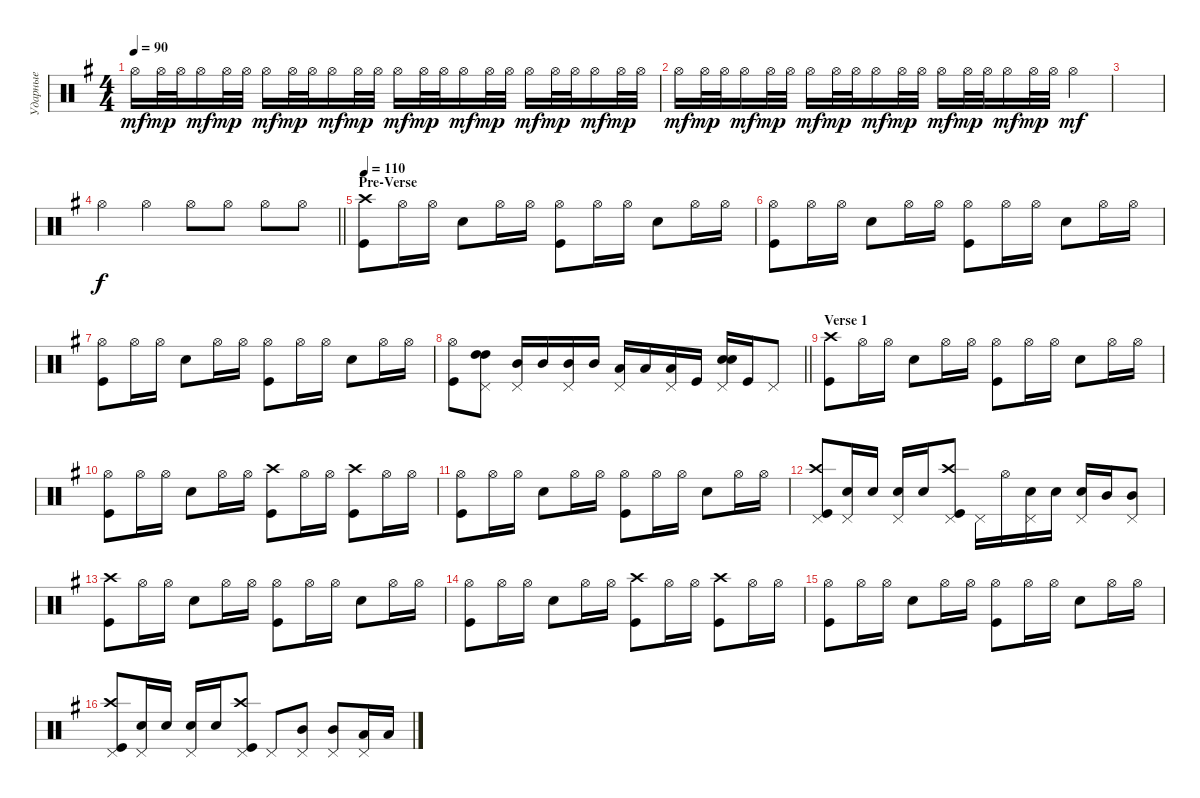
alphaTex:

\track ("Ударные" "Ударные") {instrument percussion}
\staff {score}
\articulation defaults
\ts (4 4)
\tempo 90
\clef neutral
\ks eminor "Hi-Hat (open)".16{dy mf} "Hi-Hat (open)".32{dy mp} "Hi-Hat (open)".32 "Hi-Hat (open)".16{dy mf} "Hi-Hat (open)".32{dy mp} "Hi-Hat (open)".32 "Hi-Hat (open)".16{dy mf} "Hi-Hat (open)".32{dy mp} "Hi-Hat (open)".32 "Hi-Hat (open)".16{dy mf} "Hi-Hat (open)".32{dy mp} "Hi-Hat (open)".32 "Hi-Hat (open)".16{dy mf} "Hi-Hat (open)".32{dy mp} "Hi-Hat (open)".32 "Hi-Hat (open)".16{dy mf} "Hi-Hat (open)".32{dy mp} "Hi-Hat (open)".32 "Hi-Hat (open)".16{dy mf} "Hi-Hat (open)".32{dy mp} "Hi-Hat (open)".32 "Hi-Hat (open)".16{dy mf} "Hi-Hat (open)".32{dy mp} "Hi-Hat (open)".32
|
"Hi-Hat (open)".16{dy mf} "Hi-Hat (open)".32{dy mp} "Hi-Hat (open)".32 "Hi-Hat (open)".16{dy mf} "Hi-Hat (open)".32{dy mp} "Hi-Hat (open)".32 "Hi-Hat (open)".16{dy mf} "Hi-Hat (open)".32{dy mp} "Hi-Hat (open)".32 "Hi-Hat (open)".16{dy mf} "Hi-Hat (open)".32{dy mp} "Hi-Hat (open)".32 "Hi-Hat (open)".16{dy mf} "Hi-Hat (open)".32{dy mp} "Hi-Hat (open)".32 "Hi-Hat (open)".16{dy mf} "Hi-Hat (open)".32{dy mp} "Hi-Hat (open)".32 "Hi-Hat (open)".4{dy mf} |
|
\barLineRight lightlight "Hi-Hat (open)".4{dy f} "Hi-Hat (open)".4 "Hi-Hat (open)".8 "Hi-Hat (open)".8 "Hi-Hat (open)".8 "Hi-Hat (open)".8
|
\section ("" "Pre-Verse")
\tempo 110
("Kick (hit)" "Crash high (hit)").8 "Hi-Hat (open)".16 "Hi-Hat (open)".16 "Snare (hit) 2".8 "Hi-Hat (open)".16 "Hi-Hat (open)".16 ("Kick (hit)" "Hi-Hat (open)").8 "Hi-Hat (open)".16 "Hi-Hat (open)".16 "Snare (hit) 2".8 "Hi-Hat (open)".16 "Hi-Hat (open)".16 |
("Kick (hit)" "Hi-Hat (open)").8 "Hi-Hat (open)".16 "Hi-Hat (open)".16 "Snare (hit) 2".8 "Hi-Hat (open)".16 "Hi-Hat (open)".16 ("Kick (hit)" "Hi-Hat (open)").8 "Hi-Hat (open)".16 "Hi-Hat (open)".16 "Snare (hit) 2".8 "Hi-Hat (open)".16 "Hi-Hat (open)".16 |
("Kick (hit)" "Hi-Hat (open)").8 "Hi-Hat (open)".16 "Hi-Hat (open)".16 "Snare (hit) 2".8 "Hi-Hat (open)".16 "Hi-Hat (open)".16 ("Kick (hit)" "Hi-Hat (open)").8 "Hi-Hat (open)".16 "Hi-Hat (open)".16 "Snare (hit) 2".8 "Hi-Hat (open)".16 "Hi-Hat (open)".16 |
\barLineRight lightlight
("Kick (hit)" "Hi-Hat (open)").8 ("High Tom (hit)" "High Tom (hit)" "Pedal Hi-Hat (hit)").8{bd 240} ("Mid Tom (hit)" "Pedal Hi-Hat (hit)").16 "Mid Tom (hit)".16 ("Mid Tom (hit)" "Pedal Hi-Hat (hit)").16 "Mid Tom (hit)".16 ("Low Tom (hit)" "Pedal Hi-Hat (hit)").16 "Low Tom (hit)".16 ("Low Tom (hit)" "Pedal Hi-Hat (hit)").16 "Kick (hit)".16 ("Snare (hit) 2" "Snare (hit) 2" "Pedal Hi-Hat (hit)").16{bd 240} "Kick (hit)".16 "Pedal Hi-Hat (hit)".8 |
\section ("" "Verse 1")
("Kick (hit)" "Crash high (hit)").8 "Hi-Hat (open)".16 "Hi-Hat (open)".16 "Snare (hit) 2".8 "Hi-Hat (open)".16 "Hi-Hat (open)".16 ("Kick (hit)" "Hi-Hat (open)").8 "Hi-Hat (open)".16 "Hi-Hat (open)".16 "Snare (hit) 2".8 "Hi-Hat (open)".16 "Hi-Hat (open)".16 |
("Kick (hit)" "Hi-Hat (open)").8 "Hi-Hat (open)".16 "Hi-Hat (open)".16 "Snare (hit) 2".8 "Hi-Hat (open)".16 "Hi-Hat (open)".16 ("Kick (hit)" "Crash high (hit)").8 "Hi-Hat (open)".16 "Hi-Hat (open)".16 ("Kick (hit)" "Crash high (hit)").8 "Hi-Hat (open)".16 "Hi-Hat (open)".16 |
("Kick (hit)" "Hi-Hat (open)").8 "Hi-Hat (open)".16 "Hi-Hat (open)".16 "Snare (hit) 2".8 "Hi-Hat (open)".16 "Hi-Hat (open)".16 ("Kick (hit)" "Hi-Hat (open)").8 "Hi-Hat (open)".16 "Hi-Hat (open)".16 "Snare (hit) 2".8 "Hi-Hat (open)".16 "Hi-Hat (open)".16 |
("Kick (hit)" "Crash high (hit)" "Pedal Hi-Hat (hit)").8 ("Snare (hit) 2" "Pedal Hi-Hat (hit)").16 "Snare (hit) 2".16 ("Snare (hit) 2" "Pedal Hi-Hat (hit)").16 "Snare (hit) 2".16 ("Kick (hit)" "Crash high (hit)" "Pedal Hi-Hat (hit)").8 "Pedal Hi-Hat (hit)".16 "Hi-Hat (open)".16 ("Snare (hit) 2" "Pedal Hi-Hat (hit)").16 "Snare (hit) 2".16 ("Snare (hit) 2" "Pedal Hi-Hat (hit)").16 "Mid Tom (hit)".16 ("Mid Tom (hit)" "Pedal Hi-Hat (hit)").8 |
("Kick (hit)" "Crash high (hit)").8 "Hi-Hat (open)".16 "Hi-Hat (open)".16 "Snare (hit) 2".8 "Hi-Hat (open)".16 "Hi-Hat (open)".16 ("Kick (hit)" "Hi-Hat (open)").8 "Hi-Hat (open)".16 "Hi-Hat (open)".16 "Snare (hit) 2".8 "Hi-Hat (open)".16 "Hi-Hat (open)".16 |
("Kick (hit)" "Hi-Hat (open)").8 "Hi-Hat (open)".16 "Hi-Hat (open)".16 "Snare (hit) 2".8 "Hi-Hat (open)".16 "Hi-Hat (open)".16 ("Kick (hit)" "Crash high (hit)").8 "Hi-Hat (open)".16 "Hi-Hat (open)".16 ("Kick (hit)" "Crash high (hit)").8 "Hi-Hat (open)".16 "Hi-Hat (open)".16 |
("Kick (hit)" "Hi-Hat (open)").8 "Hi-Hat (open)".16 "Hi-Hat (open)".16 "Snare (hit) 2".8 "Hi-Hat (open)".16 "Hi-Hat (open)".16 ("Kick (hit)" "Hi-Hat (open)").8 "Hi-Hat (open)".16 "Hi-Hat (open)".16 "Snare (hit) 2".8 "Hi-Hat (open)".16 "Hi-Hat (open)".16 |
("Kick (hit)" "Crash high (hit)" "Pedal Hi-Hat (hit)").8 ("Snare (hit) 2" "Pedal Hi-Hat (hit)").16 "Snare (hit) 2".16 ("Snare (hit) 2" "Pedal Hi-Hat (hit)").16 "Snare (hit) 2".16 ("Kick (hit)" "Crash high (hit)" "Pedal Hi-Hat (hit)").8 "Pedal Hi-Hat (hit)".8 ("Mid Tom (hit)" "Pedal Hi-Hat (hit)").8 ("Mid Tom (hit)" "Pedal Hi-Hat (hit)").8 ("Low Tom (hit)" "Pedal Hi-Hat (hit)").16 "Low Tom (hit)".16
